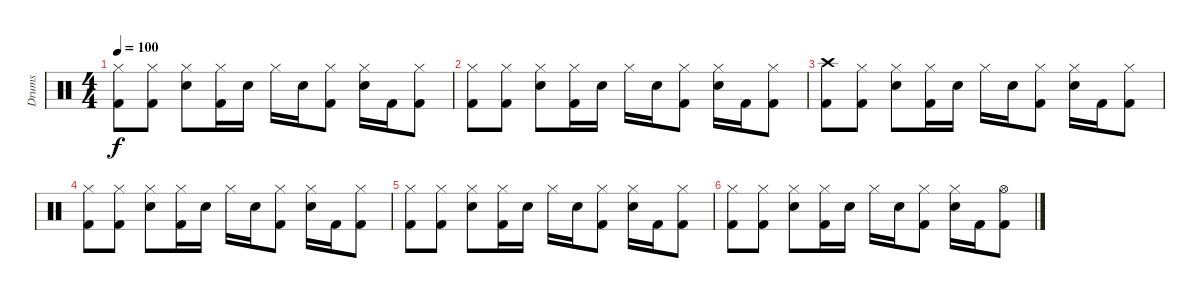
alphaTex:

\track ("Drums" "Drums") {instrument percussion}
\staff {score}
\articulation defaults
\ts (4 4)
\tempo 100
\clef neutral
\ks c
("Hi-Hat (closed)" "Kick (hit) 2").8{dy f} ("Hi-Hat (closed)" "Kick (hit) 2").8 ("Hi-Hat (closed)" "Snare (hit) 2").8 ("Hi-Hat (closed)" "Kick (hit) 2").16 "Snare (hit) 2".16 "Hi-Hat (closed)".16 "Snare (hit) 2".16 ("Hi-Hat (closed)" "Kick (hit) 2").8 ("Hi-Hat (closed)" "Snare (hit) 2").16 "Kick (hit) 2".16 ("Hi-Hat (closed)" "Kick (hit) 2").8 |
("Hi-Hat (closed)" "Kick (hit) 2").8 ("Hi-Hat (closed)" "Kick (hit) 2").8 ("Hi-Hat (closed)" "Snare (hit) 2").8 ("Hi-Hat (closed)" "Kick (hit) 2").16 "Snare (hit) 2".16 "Hi-Hat (closed)".16 "Snare (hit) 2".16 ("Hi-Hat (closed)" "Kick (hit) 2").8 ("Hi-Hat (closed)" "Snare (hit) 2").16 "Kick (hit) 2".16 ("Hi-Hat (closed)" "Kick (hit) 2").8 |
("Crash high (hit)" "Kick (hit) 2").8 ("Hi-Hat (closed)" "Kick (hit) 2").8 ("Hi-Hat (closed)" "Snare (hit) 2").8 ("Hi-Hat (closed)" "Kick (hit) 2").16 "Snare (hit) 2".16 "Hi-Hat (closed)".16 "Snare (hit) 2".16 ("Hi-Hat (closed)" "Kick (hit) 2").8 ("Hi-Hat (closed)" "Snare (hit) 2").16 "Kick (hit) 2".16 ("Hi-Hat (closed)" "Kick (hit) 2").8 |
("Hi-Hat (closed)" "Kick (hit) 2").8 ("Hi-Hat (closed)" "Kick (hit) 2").8 ("Hi-Hat (closed)" "Snare (hit) 2").8 ("Hi-Hat (closed)" "Kick (hit) 2").16 "Snare (hit) 2".16 "Hi-Hat (closed)".16 "Snare (hit) 2".16 ("Hi-Hat (closed)" "Kick (hit) 2").8 ("Hi-Hat (closed)" "Snare (hit) 2").16 "Kick (hit) 2".16 ("Hi-Hat (closed)" "Kick (hit) 2").8 |
("Hi-Hat (closed)" "Kick (hit) 2").8 ("Hi-Hat (closed)" "Kick (hit) 2").8 ("Hi-Hat (closed)" "Snare (hit) 2").8 ("Hi-Hat (closed)" "Kick (hit) 2").16 "Snare (hit) 2".16 "Hi-Hat (closed)".16 "Snare (hit) 2".16 ("Hi-Hat (closed)" "Kick (hit) 2").8 ("Hi-Hat (closed)" "Snare (hit) 2").16 "Kick (hit) 2".16 ("Hi-Hat (closed)" "Kick (hit) 2").8 |
("Hi-Hat (closed)" "Kick (hit) 2").8 ("Hi-Hat (closed)" "Kick (hit) 2").8 ("Hi-Hat (closed)" "Snare (hit) 2").8 ("Hi-Hat (closed)" "Kick (hit) 2").16 "Snare (hit) 2".16 "Hi-Hat (closed)".16 "Snare (hit) 2".16 ("Hi-Hat (closed)" "Kick (hit) 2").8 ("Hi-Hat (closed)" "Snare (hit) 2").16 "Kick (hit) 2".16 ("Hi-Hat (open)" "Kick (hit) 2").8
